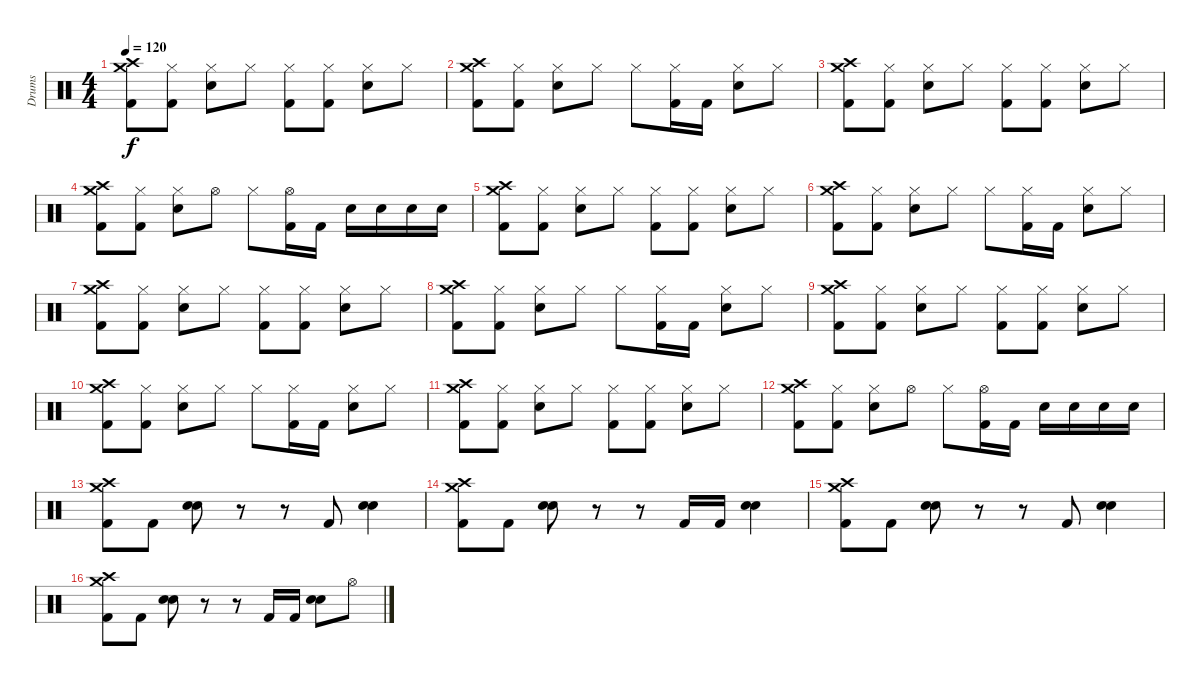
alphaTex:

\track ("Drums" "Drums") {instrument percussion}
\staff {score}
\articulation defaults
\ts (4 4)
\tempo 120
\clef neutral
\ks c
("Crash high (hit)" "Crash medium (hit)" "Kick (hit) 2").8{dy f} ("Hi-Hat (closed)" "Kick (hit) 2").8 ("Hi-Hat (closed)" "Snare (hit) 2").8 "Hi-Hat (closed)".8 ("Hi-Hat (closed)" "Kick (hit) 2").8 ("Hi-Hat (closed)" "Kick (hit) 2").8 ("Hi-Hat (closed)" "Snare (hit) 2").8 "Hi-Hat (closed)".8 |
("Crash high (hit)" "Crash medium (hit)" "Kick (hit) 2").8 ("Hi-Hat (closed)" "Kick (hit) 2").8 ("Hi-Hat (closed)" "Snare (hit) 2").8 "Hi-Hat (closed)".8 "Hi-Hat (closed)".8 ("Hi-Hat (closed)" "Kick (hit) 2").16 "Kick (hit) 2".16 ("Hi-Hat (closed)" "Snare (hit) 2").8 "Hi-Hat (closed)".8 |
("Crash high (hit)" "Crash medium (hit)" "Kick (hit) 2").8 ("Hi-Hat (closed)" "Kick (hit) 2").8 ("Hi-Hat (closed)" "Snare (hit) 2").8 "Hi-Hat (closed)".8 ("Hi-Hat (closed)" "Kick (hit) 2").8 ("Hi-Hat (closed)" "Kick (hit) 2").8 ("Hi-Hat (closed)" "Snare (hit) 2").8 "Hi-Hat (closed)".8 |
("Crash high (hit)" "Crash medium (hit)" "Kick (hit) 2").8 ("Hi-Hat (closed)" "Kick (hit) 2").8 ("Hi-Hat (closed)" "Snare (hit) 2").8 "Hi-Hat (open)".8 "Hi-Hat (closed)".8 ("Hi-Hat (open)" "Kick (hit) 2").16 "Kick (hit) 2".16 "Snare (hit) 2".16 "Snare (hit) 2".16 "Snare (hit) 2".16 "Snare (hit) 2".16 |
("Crash high (hit)" "Crash medium (hit)" "Kick (hit) 2").8 ("Hi-Hat (closed)" "Kick (hit) 2").8 ("Hi-Hat (closed)" "Snare (hit) 2").8 "Hi-Hat (closed)".8 ("Hi-Hat (closed)" "Kick (hit) 2").8 ("Hi-Hat (closed)" "Kick (hit) 2").8 ("Hi-Hat (closed)" "Snare (hit) 2").8 "Hi-Hat (closed)".8 |
("Crash high (hit)" "Crash medium (hit)" "Kick (hit) 2").8 ("Hi-Hat (closed)" "Kick (hit) 2").8 ("Hi-Hat (closed)" "Snare (hit) 2").8 "Hi-Hat (closed)".8 "Hi-Hat (closed)".8 ("Hi-Hat (closed)" "Kick (hit) 2").16 "Kick (hit) 2".16 ("Hi-Hat (closed)" "Snare (hit) 2").8 "Hi-Hat (closed)".8 |
("Crash high (hit)" "Crash medium (hit)" "Kick (hit) 2").8 ("Hi-Hat (closed)" "Kick (hit) 2").8 ("Hi-Hat (closed)" "Snare (hit) 2").8 "Hi-Hat (closed)".8 ("Hi-Hat (closed)" "Kick (hit) 2").8 ("Hi-Hat (closed)" "Kick (hit) 2").8 ("Hi-Hat (closed)" "Snare (hit) 2").8 "Hi-Hat (closed)".8 |
("Crash high (hit)" "Crash medium (hit)" "Kick (hit) 2").8 ("Hi-Hat (closed)" "Kick (hit) 2").8 ("Hi-Hat (closed)" "Snare (hit) 2").8 "Hi-Hat (closed)".8 "Hi-Hat (closed)".8 ("Hi-Hat (closed)" "Kick (hit) 2").16 "Kick (hit) 2".16 ("Hi-Hat (closed)" "Snare (hit) 2").8 "Hi-Hat (closed)".8 |
("Crash high (hit)" "Crash medium (hit)" "Kick (hit) 2").8 ("Hi-Hat (closed)" "Kick (hit) 2").8 ("Hi-Hat (closed)" "Snare (hit) 2").8 "Hi-Hat (closed)".8 ("Hi-Hat (closed)" "Kick (hit) 2").8 ("Hi-Hat (closed)" "Kick (hit) 2").8 ("Hi-Hat (closed)" "Snare (hit) 2").8 "Hi-Hat (closed)".8 |
("Crash high (hit)" "Crash medium (hit)" "Kick (hit) 2").8 ("Hi-Hat (closed)" "Kick (hit) 2").8 ("Hi-Hat (closed)" "Snare (hit) 2").8 "Hi-Hat (closed)".8 "Hi-Hat (closed)".8 ("Hi-Hat (closed)" "Kick (hit) 2").16 "Kick (hit) 2".16 ("Hi-Hat (closed)" "Snare (hit) 2").8 "Hi-Hat (closed)".8 |
("Crash high (hit)" "Crash medium (hit)" "Kick (hit) 2").8 ("Hi-Hat (closed)" "Kick (hit) 2").8 ("Hi-Hat (closed)" "Snare (hit) 2").8 "Hi-Hat (closed)".8 ("Hi-Hat (closed)" "Kick (hit) 2").8 ("Hi-Hat (closed)" "Kick (hit) 2").8 ("Hi-Hat (closed)" "Snare (hit) 2").8 "Hi-Hat (closed)".8 |
("Crash high (hit)" "Crash medium (hit)" "Kick (hit) 2").8 ("Hi-Hat (closed)" "Kick (hit) 2").8 ("Hi-Hat (closed)" "Snare (hit) 2").8 "Hi-Hat (open)".8 "Hi-Hat (closed)".8 ("Hi-Hat (open)" "Kick (hit) 2").16 "Kick (hit) 2".16 "Snare (hit) 2".16 "Snare (hit) 2".16 "Snare (hit) 2".16 "Snare (hit) 2".16 |
("Crash high (hit)" "Crash medium (hit)" "Kick (hit) 2").8 "Kick (hit) 2".8 ("Hand Clap (hit)" "Snare (hit) 2").8 r.8 r.8 "Kick (hit) 2".8 ("Hand Clap (hit)" "Snare (hit) 2").4 |
("Crash high (hit)" "Crash medium (hit)" "Kick (hit) 2").8 "Kick (hit) 2".8 ("Hand Clap (hit)" "Snare (hit) 2").8 r.8 r.8 "Kick (hit) 2".16 "Kick (hit) 2".16 ("Hand Clap (hit)" "Snare (hit) 2").4 |
("Crash high (hit)" "Crash medium (hit)" "Kick (hit) 2").8 "Kick (hit) 2".8 ("Hand Clap (hit)" "Snare (hit) 2").8 r.8 r.8 "Kick (hit) 2".8 ("Hand Clap (hit)" "Snare (hit) 2").4 |
("Crash high (hit)" "Crash medium (hit)" "Kick (hit) 2").8 "Kick (hit) 2".8 ("Hand Clap (hit)" "Snare (hit) 2").8 r.8 r.8 "Kick (hit) 2".16 "Kick (hit) 2".16 ("Hand Clap (hit)" "Snare (hit) 2").8 "Hi-Hat (open)".8
